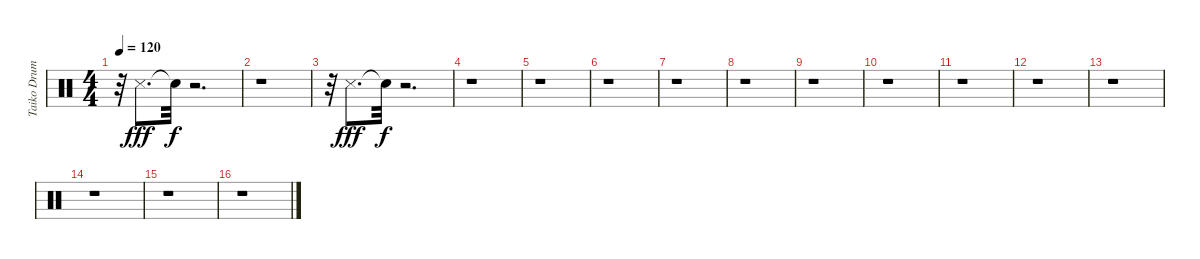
\track ("Taiko Drum" "Taiko Drum") {instrument percussion}
\staff {score}
\articulation defaults
\ts (4 4)
\tempo 120
\clef neutral
\ks c
r.32{dy f} "Metronome (hit)".8{d dy fff} "Snare (hit)"{t}.32{dy f} r.2{d} |
r.1 |
r.32 "Metronome (hit)".8{d dy fff} "Snare (hit)"{t}.32{dy f} r.2{d} |
r.1 |
r.1 |
r.1 |
r.1 |
r.1 |
r.1 |
r.1 |
r.1 |
r.1 |
r.1 |
r.1 |
r.1 |
r.1
